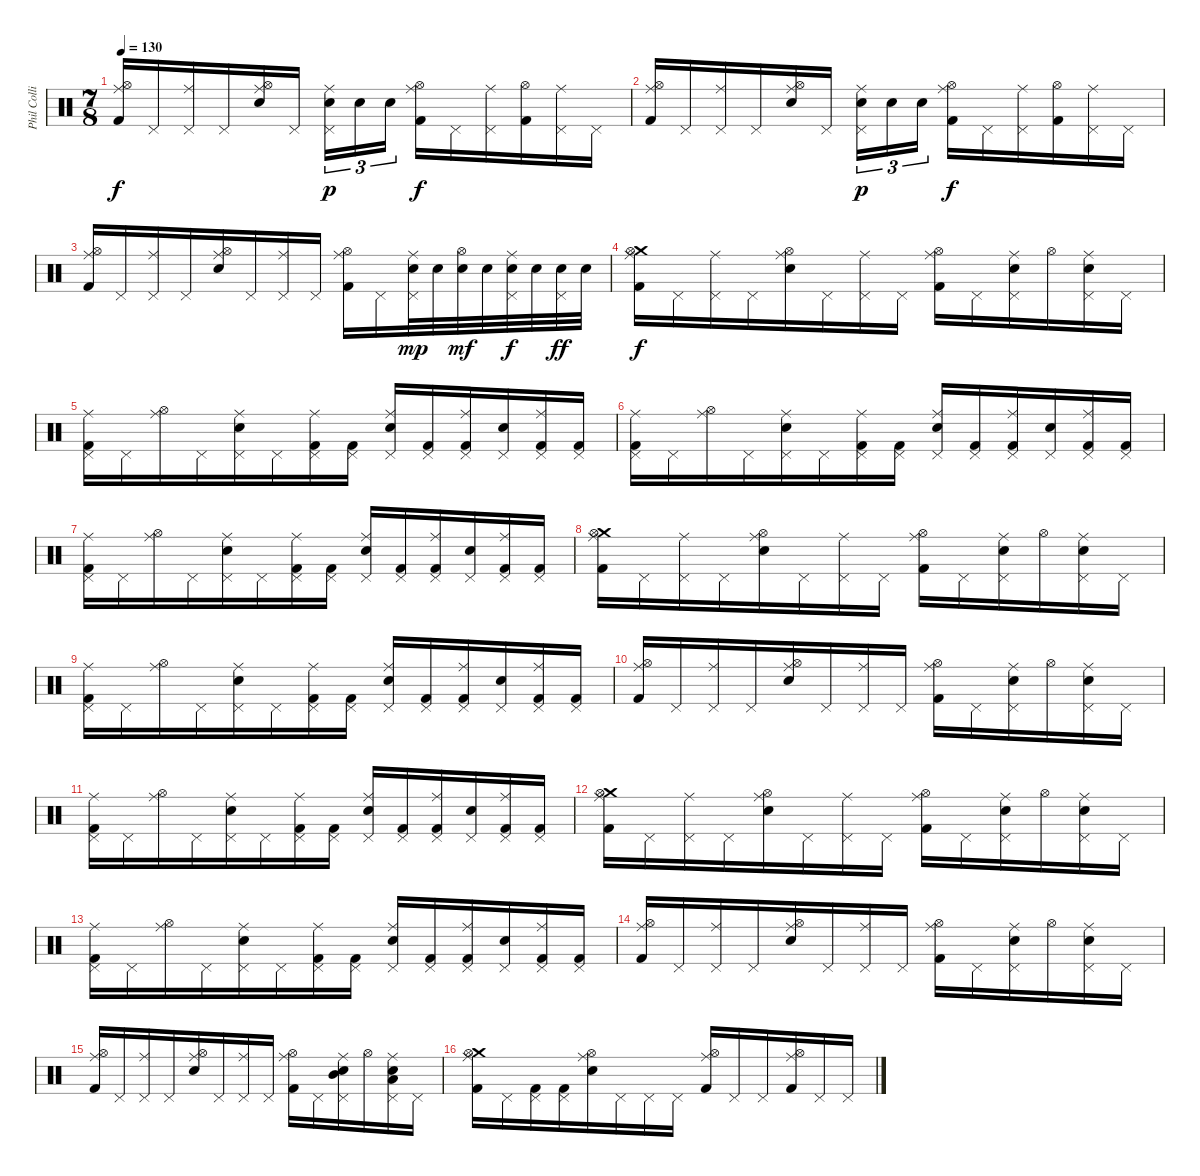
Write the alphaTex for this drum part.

\track ("Phil Collins (drums)" "Phil Colli") {instrument percussion}
\staff {score}
\articulation defaults
\ts (7 8)
\tempo 130
\clef neutral
\ks c
("Ride (middle)" "Hi-Hat (open)" "Kick (hit) 2").16{dy f} "Pedal Hi-Hat (hit)".16 ("Ride (middle)" "Pedal Hi-Hat (hit)").16 "Pedal Hi-Hat (hit)".16 ("Ride (middle)" "Hi-Hat (open)" "Electric Snare (hit)").16 "Pedal Hi-Hat (hit)".16 ("Ride (middle)" "Pedal Hi-Hat (hit)" "Electric Snare (hit)").16{tu (3 2) dy p} "Electric Snare (hit)".16{tu (3 2)} "Electric Snare (hit)".16{tu (3 2)} ("Ride (middle)" "Hi-Hat (open)" "Kick (hit) 2").16{dy f} "Pedal Hi-Hat (hit)".16 ("Ride (middle)" "Pedal Hi-Hat (hit)").16 ("Hi-Hat (open)" "Kick (hit) 2").16 ("Ride (middle)" "Pedal Hi-Hat (hit)").16 "Pedal Hi-Hat (hit)".16 |
("Ride (middle)" "Hi-Hat (open)" "Kick (hit) 2").16 "Pedal Hi-Hat (hit)".16 ("Ride (middle)" "Pedal Hi-Hat (hit)").16 "Pedal Hi-Hat (hit)".16 ("Ride (middle)" "Hi-Hat (open)" "Electric Snare (hit)").16 "Pedal Hi-Hat (hit)".16 ("Ride (middle)" "Pedal Hi-Hat (hit)" "Electric Snare (hit)").16{tu (3 2) dy p} "Electric Snare (hit)".16{tu (3 2)} "Electric Snare (hit)".16{tu (3 2)} ("Ride (middle)" "Hi-Hat (open)" "Kick (hit) 2").16{dy f} "Pedal Hi-Hat (hit)".16 ("Ride (middle)" "Pedal Hi-Hat (hit)").16 ("Hi-Hat (open)" "Kick (hit) 2").16 ("Ride (middle)" "Pedal Hi-Hat (hit)").16 "Pedal Hi-Hat (hit)".16 |
("Ride (middle)" "Hi-Hat (open)" "Kick (hit) 2").16 "Pedal Hi-Hat (hit)".16 ("Ride (middle)" "Pedal Hi-Hat (hit)").16 "Pedal Hi-Hat (hit)".16 ("Ride (middle)" "Hi-Hat (open)" "Electric Snare (hit)").16 "Pedal Hi-Hat (hit)".16 ("Ride (middle)" "Pedal Hi-Hat (hit)").16 "Pedal Hi-Hat (hit)".16 ("Ride (middle)" "Hi-Hat (open)" "Kick (hit) 2").16 "Pedal Hi-Hat (hit)".16 ("Ride (middle)" "Pedal Hi-Hat (hit)" "Electric Snare (hit)").32{dy mp} "Electric Snare (hit)".32 ("Hi-Hat (open)" "Electric Snare (hit)").32{dy mf} "Electric Snare (hit)".32 ("Ride (middle)" "Pedal Hi-Hat (hit)" "Electric Snare (hit)").32{dy f} "Electric Snare (hit)".32 ("Pedal Hi-Hat (hit)" "Electric Snare (hit)").32{dy ff} "Electric Snare (hit)".32 |
("Crash medium (hit)" "Ride (middle)" "Hi-Hat (open)" "Kick (hit) 2").16{dy f} "Pedal Hi-Hat (hit)".16 ("Ride (middle)" "Pedal Hi-Hat (hit)").16 "Pedal Hi-Hat (hit)".16 ("Ride (middle)" "Hi-Hat (open)" "Electric Snare (hit)").16 "Pedal Hi-Hat (hit)".16 ("Ride (middle)" "Pedal Hi-Hat (hit)").16 "Pedal Hi-Hat (hit)".16 ("Ride (middle)" "Hi-Hat (open)" "Kick (hit) 2").16 "Pedal Hi-Hat (hit)".16 ("Ride (middle)" "Pedal Hi-Hat (hit)" "Electric Snare (hit)").16 "Hi-Hat (open)".16 ("Ride (middle)" "Pedal Hi-Hat (hit)" "Electric Snare (hit)").16 "Pedal Hi-Hat (hit)".16 |
("Ride (middle)" "Pedal Hi-Hat (hit)" "Kick (hit) 2").16 "Pedal Hi-Hat (hit)".16 ("Ride (middle)" "Hi-Hat (open)").16 "Pedal Hi-Hat (hit)".16 ("Ride (middle)" "Pedal Hi-Hat (hit)" "Electric Snare (hit)").16 "Pedal Hi-Hat (hit)".16 ("Ride (middle)" "Pedal Hi-Hat (hit)" "Kick (hit) 2").16 ("Pedal Hi-Hat (hit)" "Kick (hit) 2").16 ("Ride (middle)" "Pedal Hi-Hat (hit)" "Electric Snare (hit)").16 ("Pedal Hi-Hat (hit)" "Kick (hit) 2").16 ("Ride (middle)" "Pedal Hi-Hat (hit)" "Kick (hit) 2").16 ("Pedal Hi-Hat (hit)" "Electric Snare (hit)").16 ("Ride (middle)" "Pedal Hi-Hat (hit)" "Kick (hit) 2").16 ("Pedal Hi-Hat (hit)" "Kick (hit) 2").16 |
("Ride (middle)" "Pedal Hi-Hat (hit)" "Kick (hit) 2").16 "Pedal Hi-Hat (hit)".16 ("Ride (middle)" "Hi-Hat (open)").16 "Pedal Hi-Hat (hit)".16 ("Ride (middle)" "Pedal Hi-Hat (hit)" "Electric Snare (hit)").16 "Pedal Hi-Hat (hit)".16 ("Ride (middle)" "Pedal Hi-Hat (hit)" "Kick (hit) 2").16 ("Pedal Hi-Hat (hit)" "Kick (hit) 2").16 ("Ride (middle)" "Pedal Hi-Hat (hit)" "Electric Snare (hit)").16 ("Pedal Hi-Hat (hit)" "Kick (hit) 2").16 ("Ride (middle)" "Pedal Hi-Hat (hit)" "Kick (hit) 2").16 ("Pedal Hi-Hat (hit)" "Electric Snare (hit)").16 ("Ride (middle)" "Pedal Hi-Hat (hit)" "Kick (hit) 2").16 ("Pedal Hi-Hat (hit)" "Kick (hit) 2").16 |
("Ride (middle)" "Pedal Hi-Hat (hit)" "Kick (hit) 2").16 "Pedal Hi-Hat (hit)".16 ("Ride (middle)" "Hi-Hat (open)").16 "Pedal Hi-Hat (hit)".16 ("Ride (middle)" "Pedal Hi-Hat (hit)" "Electric Snare (hit)").16 "Pedal Hi-Hat (hit)".16 ("Ride (middle)" "Pedal Hi-Hat (hit)" "Kick (hit) 2").16 ("Pedal Hi-Hat (hit)" "Kick (hit) 2").16 ("Ride (middle)" "Pedal Hi-Hat (hit)" "Electric Snare (hit)").16 ("Pedal Hi-Hat (hit)" "Kick (hit) 2").16 ("Ride (middle)" "Pedal Hi-Hat (hit)" "Kick (hit) 2").16 ("Pedal Hi-Hat (hit)" "Electric Snare (hit)").16 ("Ride (middle)" "Pedal Hi-Hat (hit)" "Kick (hit) 2").16 ("Pedal Hi-Hat (hit)" "Kick (hit) 2").16 |
("Crash medium (hit)" "Ride (middle)" "Hi-Hat (open)" "Kick (hit) 2").16 "Pedal Hi-Hat (hit)".16 ("Ride (middle)" "Pedal Hi-Hat (hit)").16 "Pedal Hi-Hat (hit)".16 ("Ride (middle)" "Hi-Hat (open)" "Electric Snare (hit)").16 "Pedal Hi-Hat (hit)".16 ("Ride (middle)" "Pedal Hi-Hat (hit)").16 "Pedal Hi-Hat (hit)".16 ("Ride (middle)" "Hi-Hat (open)" "Kick (hit) 2").16 "Pedal Hi-Hat (hit)".16 ("Ride (middle)" "Pedal Hi-Hat (hit)" "Electric Snare (hit)").16 "Hi-Hat (open)".16 ("Ride (middle)" "Pedal Hi-Hat (hit)" "Electric Snare (hit)").16 "Pedal Hi-Hat (hit)".16 |
("Ride (middle)" "Pedal Hi-Hat (hit)" "Kick (hit) 2").16 "Pedal Hi-Hat (hit)".16 ("Ride (middle)" "Hi-Hat (open)").16 "Pedal Hi-Hat (hit)".16 ("Ride (middle)" "Pedal Hi-Hat (hit)" "Electric Snare (hit)").16 "Pedal Hi-Hat (hit)".16 ("Ride (middle)" "Pedal Hi-Hat (hit)" "Kick (hit) 2").16 ("Pedal Hi-Hat (hit)" "Kick (hit) 2").16 ("Ride (middle)" "Pedal Hi-Hat (hit)" "Electric Snare (hit)").16 ("Pedal Hi-Hat (hit)" "Kick (hit) 2").16 ("Ride (middle)" "Pedal Hi-Hat (hit)" "Kick (hit) 2").16 ("Pedal Hi-Hat (hit)" "Electric Snare (hit)").16 ("Ride (middle)" "Pedal Hi-Hat (hit)" "Kick (hit) 2").16 ("Pedal Hi-Hat (hit)" "Kick (hit) 2").16 |
("Ride (middle)" "Hi-Hat (open)" "Kick (hit) 2").16 "Pedal Hi-Hat (hit)".16 ("Ride (middle)" "Pedal Hi-Hat (hit)").16 "Pedal Hi-Hat (hit)".16 ("Ride (middle)" "Hi-Hat (open)" "Electric Snare (hit)").16 "Pedal Hi-Hat (hit)".16 ("Ride (middle)" "Pedal Hi-Hat (hit)").16 "Pedal Hi-Hat (hit)".16 ("Ride (middle)" "Hi-Hat (open)" "Kick (hit) 2").16 "Pedal Hi-Hat (hit)".16 ("Ride (middle)" "Pedal Hi-Hat (hit)" "Electric Snare (hit)").16 "Hi-Hat (open)".16 ("Ride (middle)" "Pedal Hi-Hat (hit)" "Electric Snare (hit)").16 "Pedal Hi-Hat (hit)".16 |
("Ride (middle)" "Pedal Hi-Hat (hit)" "Kick (hit) 2").16 "Pedal Hi-Hat (hit)".16 ("Ride (middle)" "Hi-Hat (open)").16 "Pedal Hi-Hat (hit)".16 ("Ride (middle)" "Pedal Hi-Hat (hit)" "Electric Snare (hit)").16 "Pedal Hi-Hat (hit)".16 ("Ride (middle)" "Pedal Hi-Hat (hit)" "Kick (hit) 2").16 ("Pedal Hi-Hat (hit)" "Kick (hit) 2").16 ("Ride (middle)" "Pedal Hi-Hat (hit)" "Electric Snare (hit)").16 ("Pedal Hi-Hat (hit)" "Kick (hit) 2").16 ("Ride (middle)" "Pedal Hi-Hat (hit)" "Kick (hit) 2").16 ("Pedal Hi-Hat (hit)" "Electric Snare (hit)").16 ("Ride (middle)" "Pedal Hi-Hat (hit)" "Kick (hit) 2").16 ("Pedal Hi-Hat (hit)" "Kick (hit) 2").16 |
("Crash medium (hit)" "Ride (middle)" "Hi-Hat (open)" "Kick (hit) 2").16 "Pedal Hi-Hat (hit)".16 ("Ride (middle)" "Pedal Hi-Hat (hit)").16 "Pedal Hi-Hat (hit)".16 ("Ride (middle)" "Hi-Hat (open)" "Electric Snare (hit)").16 "Pedal Hi-Hat (hit)".16 ("Ride (middle)" "Pedal Hi-Hat (hit)").16 "Pedal Hi-Hat (hit)".16 ("Ride (middle)" "Hi-Hat (open)" "Kick (hit) 2").16 "Pedal Hi-Hat (hit)".16 ("Ride (middle)" "Pedal Hi-Hat (hit)" "Electric Snare (hit)").16 "Hi-Hat (open)".16 ("Ride (middle)" "Pedal Hi-Hat (hit)" "Electric Snare (hit)").16 "Pedal Hi-Hat (hit)".16 |
("Ride (middle)" "Pedal Hi-Hat (hit)" "Kick (hit) 2").16 "Pedal Hi-Hat (hit)".16 ("Ride (middle)" "Hi-Hat (open)").16 "Pedal Hi-Hat (hit)".16 ("Ride (middle)" "Pedal Hi-Hat (hit)" "Electric Snare (hit)").16 "Pedal Hi-Hat (hit)".16 ("Ride (middle)" "Pedal Hi-Hat (hit)" "Kick (hit) 2").16 ("Pedal Hi-Hat (hit)" "Kick (hit) 2").16 ("Ride (middle)" "Pedal Hi-Hat (hit)" "Electric Snare (hit)").16 ("Pedal Hi-Hat (hit)" "Kick (hit) 2").16 ("Ride (middle)" "Pedal Hi-Hat (hit)" "Kick (hit) 2").16 ("Pedal Hi-Hat (hit)" "Electric Snare (hit)").16 ("Ride (middle)" "Pedal Hi-Hat (hit)" "Kick (hit) 2").16 ("Pedal Hi-Hat (hit)" "Kick (hit) 2").16 |
("Ride (middle)" "Hi-Hat (open)" "Kick (hit) 2").16 "Pedal Hi-Hat (hit)".16 ("Ride (middle)" "Pedal Hi-Hat (hit)").16 "Pedal Hi-Hat (hit)".16 ("Ride (middle)" "Hi-Hat (open)" "Electric Snare (hit)").16 "Pedal Hi-Hat (hit)".16 ("Ride (middle)" "Pedal Hi-Hat (hit)").16 "Pedal Hi-Hat (hit)".16 ("Ride (middle)" "Hi-Hat (open)" "Kick (hit) 2").16 "Pedal Hi-Hat (hit)".16 ("Ride (middle)" "Pedal Hi-Hat (hit)" "Electric Snare (hit)").16 "Hi-Hat (open)".16 ("Ride (middle)" "Pedal Hi-Hat (hit)" "Electric Snare (hit)").16 "Pedal Hi-Hat (hit)".16 |
("Ride (middle)" "Hi-Hat (open)" "Kick (hit) 2").16 "Pedal Hi-Hat (hit)".16 ("Ride (middle)" "Pedal Hi-Hat (hit)").16 "Pedal Hi-Hat (hit)".16 ("Ride (middle)" "Hi-Hat (open)" "Electric Snare (hit)").16 "Pedal Hi-Hat (hit)".16 ("Ride (middle)" "Pedal Hi-Hat (hit)").16 "Pedal Hi-Hat (hit)".16 ("Ride (middle)" "Hi-Hat (open)" "Kick (hit) 2").16 "Pedal Hi-Hat (hit)".16 ("Mid Tom (hit)" "Ride (middle)" "Pedal Hi-Hat (hit)" "Electric Snare (hit)").16 "Hi-Hat (open)".16 ("Low Tom (hit)" "Ride (middle)" "Pedal Hi-Hat (hit)" "Electric Snare (hit)").16 "Pedal Hi-Hat (hit)".16 |
("Crash medium (hit)" "Ride (middle)" "Hi-Hat (open)" "Kick (hit) 2").16 "Pedal Hi-Hat (hit)".16 ("Pedal Hi-Hat (hit)" "Kick (hit) 2").16 ("Pedal Hi-Hat (hit)" "Kick (hit) 2").16 ("Ride (middle)" "Hi-Hat (open)" "Electric Snare (hit)").16 "Pedal Hi-Hat (hit)".16 "Pedal Hi-Hat (hit)".16 "Pedal Hi-Hat (hit)".16 ("Ride (middle)" "Hi-Hat (open)" "Kick (hit) 2").16 "Pedal Hi-Hat (hit)".16 "Pedal Hi-Hat (hit)".16 ("Ride (middle)" "Hi-Hat (open)" "Kick (hit) 2").16 "Pedal Hi-Hat (hit)".16 "Pedal Hi-Hat (hit)".16
